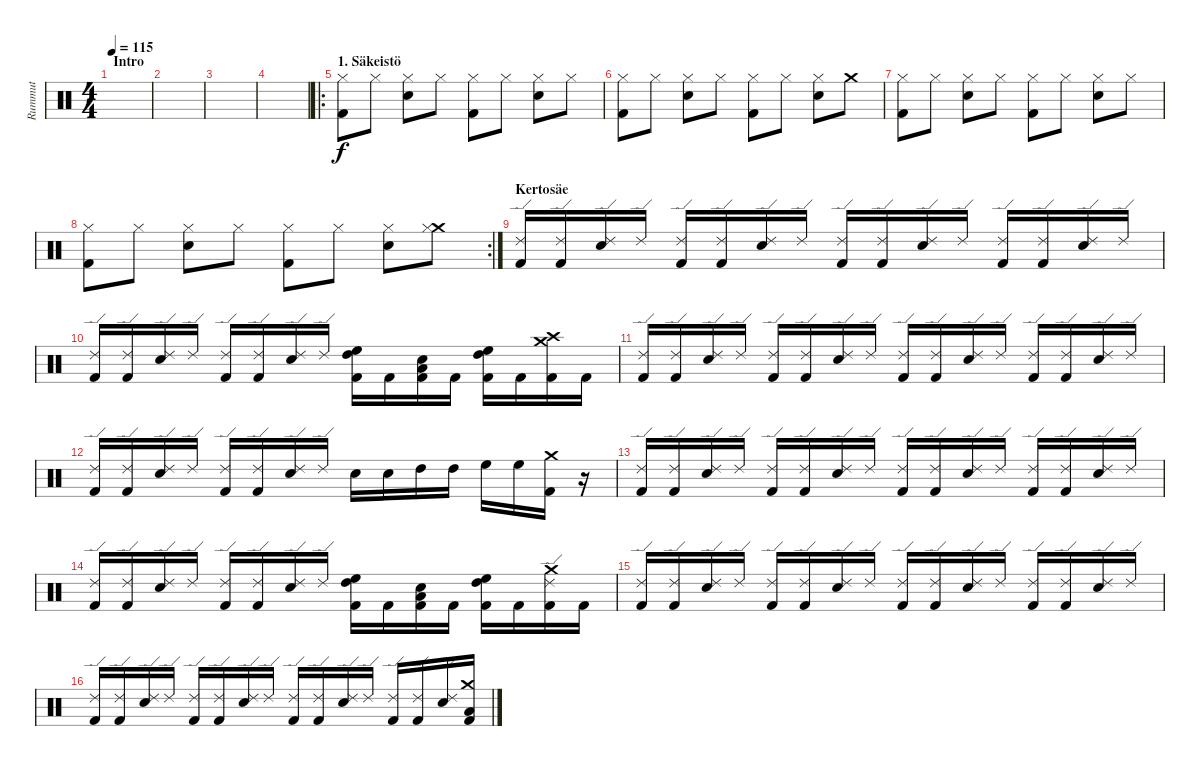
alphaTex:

\track ("Rummut" "Rummut") {instrument percussion}
\staff {score}
\articulation defaults
\ts (4 4)
\section ("" "Intro")
\tempo 115
\clef neutral
\ks c
|
|
|
|
\ro
\section ("" "1. Säkeistö")
("Hi-Hat (closed)" "Kick (hit) 2").8 "Hi-Hat (closed)".8 ("Snare (hit) 2" "Hi-Hat (closed)").8 "Hi-Hat (closed)".8 ("Hi-Hat (closed)" "Kick (hit) 2").8 "Hi-Hat (closed)".8 ("Snare (hit) 2" "Hi-Hat (closed)").8 "Hi-Hat (closed)".8 |
("Hi-Hat (closed)" "Kick (hit) 2").8 "Hi-Hat (closed)".8 ("Snare (hit) 2" "Hi-Hat (closed)").8 "Hi-Hat (closed)".8 ("Hi-Hat (closed)" "Kick (hit) 2").8 "Hi-Hat (closed)".8 ("Snare (hit) 2" "Hi-Hat (closed)").8 "Crash medium (hit)".8 |
("Hi-Hat (closed)" "Kick (hit) 2").8 "Hi-Hat (closed)".8 ("Snare (hit) 2" "Hi-Hat (closed)").8 "Hi-Hat (closed)".8 ("Hi-Hat (closed)" "Kick (hit) 2").8 "Hi-Hat (closed)".8 ("Snare (hit) 2" "Hi-Hat (closed)").8 "Hi-Hat (closed)".8 |
\rc 2
("Hi-Hat (closed)" "Kick (hit) 2").8 "Hi-Hat (closed)".8 ("Snare (hit) 2" "Hi-Hat (closed)").8 "Hi-Hat (closed)".8 ("Hi-Hat (closed)" "Kick (hit) 2").8 "Hi-Hat (closed)".8 ("Snare (hit) 2" "Hi-Hat (closed)").8 ("Crash medium (hit)" "Hi-Hat (closed)").8 |
\section ("" "Kertosäe")
("Ride (edge) 2" "Kick (hit) 2").16 ("Ride (edge) 2" "Kick (hit) 2").16 ("Snare (hit) 2" "Ride (edge) 2").16 "Ride (edge) 2".16 ("Ride (edge) 2" "Kick (hit) 2").16 ("Ride (edge) 2" "Kick (hit) 2").16 ("Snare (hit) 2" "Ride (edge) 2").16 "Ride (edge) 2".16 ("Ride (edge) 2" "Kick (hit) 2").16 ("Ride (edge) 2" "Kick (hit) 2").16 ("Snare (hit) 2" "Ride (edge) 2").16 "Ride (edge) 2".16 ("Ride (edge) 2" "Kick (hit) 2").16 ("Ride (edge) 2" "Kick (hit) 2").16 ("Snare (hit) 2" "Ride (edge) 2").16 "Ride (edge) 2".16 |
("Ride (edge) 2" "Kick (hit) 2").16 ("Ride (edge) 2" "Kick (hit) 2").16 ("Snare (hit) 2" "Ride (edge) 2").16 "Ride (edge) 2".16 ("Ride (edge) 2" "Kick (hit) 2").16 ("Ride (edge) 2" "Kick (hit) 2").16 ("Snare (hit) 2" "Ride (edge) 2").16 "Ride (edge) 2".16 ("High Tom (hit)" "High Floor Tom (hit)" "Kick (hit) 2").16 "Kick (hit) 2".16 ("Snare (hit) 2" "Low Tom (hit)" "Kick (hit) 2").16 "Kick (hit) 2".16 ("High Tom (hit)" "High Floor Tom (hit)" "Kick (hit) 2").16 "Kick (hit) 2".16 ("Crash high (hit)" "Crash medium (hit)" "Kick (hit) 2").16 "Kick (hit) 2".16 |
("Ride (edge) 2" "Kick (hit) 2").16 ("Ride (edge) 2" "Kick (hit) 2").16 ("Snare (hit) 2" "Ride (edge) 2").16 "Ride (edge) 2".16 ("Ride (edge) 2" "Kick (hit) 2").16 ("Ride (edge) 2" "Kick (hit) 2").16 ("Snare (hit) 2" "Ride (edge) 2").16 "Ride (edge) 2".16 ("Ride (edge) 2" "Kick (hit) 2").16 ("Ride (edge) 2" "Kick (hit) 2").16 ("Snare (hit) 2" "Ride (edge) 2").16 "Ride (edge) 2".16 ("Ride (edge) 2" "Kick (hit) 2").16 ("Ride (edge) 2" "Kick (hit) 2").16 ("Snare (hit) 2" "Ride (edge) 2").16 "Ride (edge) 2".16 |
("Ride (edge) 2" "Kick (hit) 2").16 ("Ride (edge) 2" "Kick (hit) 2").16 ("Snare (hit) 2" "Ride (edge) 2").16 "Ride (edge) 2".16 ("Ride (edge) 2" "Kick (hit) 2").16 ("Ride (edge) 2" "Kick (hit) 2").16 ("Snare (hit) 2" "Ride (edge) 2").16 "Ride (edge) 2".16 "Snare (hit) 2".16 "Snare (hit) 2".16 "High Tom (hit)".16 "High Tom (hit)".16 "High Floor Tom (hit)".16 "High Floor Tom (hit)".16 ("Crash medium (hit)" "Kick (hit) 2").16 r.16 |
("Ride (edge) 2" "Kick (hit) 2").16 ("Ride (edge) 2" "Kick (hit) 2").16 ("Snare (hit) 2" "Ride (edge) 2").16 "Ride (edge) 2".16 ("Ride (edge) 2" "Kick (hit) 2").16 ("Ride (edge) 2" "Kick (hit) 2").16 ("Snare (hit) 2" "Ride (edge) 2").16 "Ride (edge) 2".16 ("Ride (edge) 2" "Kick (hit) 2").16 ("Ride (edge) 2" "Kick (hit) 2").16 ("Snare (hit) 2" "Ride (edge) 2").16 "Ride (edge) 2".16 ("Ride (edge) 2" "Kick (hit) 2").16 ("Ride (edge) 2" "Kick (hit) 2").16 ("Snare (hit) 2" "Ride (edge) 2").16 "Ride (edge) 2".16 |
("Ride (edge) 2" "Kick (hit) 2").16 ("Ride (edge) 2" "Kick (hit) 2").16 ("Snare (hit) 2" "Ride (edge) 2").16 "Ride (edge) 2".16 ("Ride (edge) 2" "Kick (hit) 2").16 ("Ride (edge) 2" "Kick (hit) 2").16 ("Snare (hit) 2" "Ride (edge) 2").16 "Ride (edge) 2".16 ("High Floor Tom (hit)" "High Tom (hit)" "Kick (hit) 2").16 "Kick (hit) 2".16 ("Snare (hit) 2" "Low Tom (hit)" "Kick (hit) 2").16 "Kick (hit) 2".16 ("High Floor Tom (hit)" "High Tom (hit)" "Kick (hit) 2").16 "Kick (hit) 2".16 ("Crash medium (hit)" "Ride (edge) 2" "Kick (hit) 2").16 "Kick (hit) 2".16 |
("Ride (edge) 2" "Kick (hit) 2").16 ("Ride (edge) 2" "Kick (hit) 2").16 ("Snare (hit) 2" "Ride (edge) 2").16 "Ride (edge) 2".16 ("Ride (edge) 2" "Kick (hit) 2").16 ("Ride (edge) 2" "Kick (hit) 2").16 ("Snare (hit) 2" "Ride (edge) 2").16 "Ride (edge) 2".16 ("Ride (edge) 2" "Kick (hit) 2").16 ("Ride (edge) 2" "Kick (hit) 2").16 ("Snare (hit) 2" "Ride (edge) 2").16 "Ride (edge) 2".16 ("Ride (edge) 2" "Kick (hit) 2").16 ("Ride (edge) 2" "Kick (hit) 2").16 ("Snare (hit) 2" "Ride (edge) 2").16 "Ride (edge) 2".16 |
("Ride (edge) 2" "Kick (hit) 2").16 ("Ride (edge) 2" "Kick (hit) 2").16 ("Snare (hit) 2" "Ride (edge) 2").16 "Ride (edge) 2".16 ("Ride (edge) 2" "Kick (hit) 2").16 ("Ride (edge) 2" "Kick (hit) 2").16 ("Snare (hit) 2" "Ride (edge) 2").16 "Ride (edge) 2".16 ("Ride (edge) 2" "Kick (hit) 2").16 ("Ride (edge) 2" "Kick (hit) 2").16 ("Snare (hit) 2" "Ride (edge) 2").16 "Ride (edge) 2".16 ("Ride (edge) 2" "Kick (hit) 2").16 ("Ride (edge) 2" "Kick (hit) 2").16 ("Snare (hit) 2" "Ride (edge) 2").16 ("Low Tom (hit)" "Crash medium (hit)" "Kick (hit) 2").16
